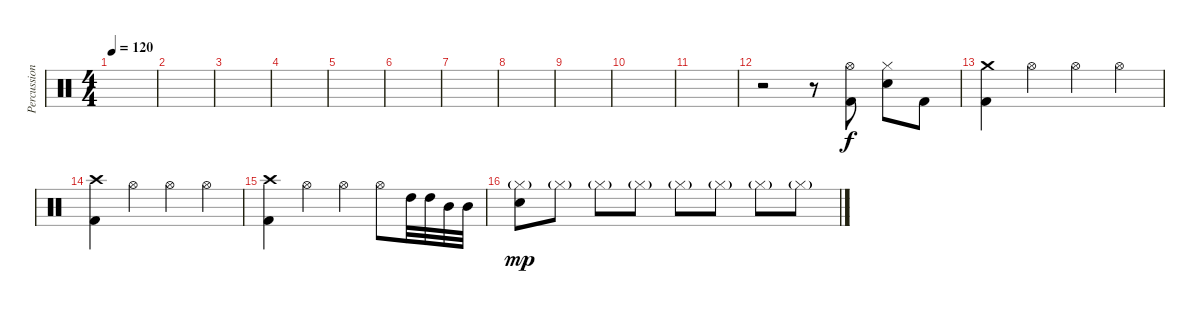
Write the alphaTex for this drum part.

\track ("Percussion" "Percussion") {instrument percussion}
\staff {score}
\articulation defaults
\ts (4 4)
\tempo 120
\clef neutral
\ks c
|
|
|
|
|
|
|
|
|
|
|
r.2 r.8 ("Hi-Hat (open)" "Kick (hit) 2").8 ("Hi-Hat (closed)" "Electric Snare (hit)").8 "Kick (hit) 2".8 |
("Crash medium (hit)" "Kick (hit) 2").4 "Hi-Hat (open)".4 "Hi-Hat (open)".4 "Hi-Hat (open)".4 |
("Crash high (hit)" "Kick (hit) 2").4 "Hi-Hat (open)".4 "Hi-Hat (open)".4 "Hi-Hat (open)".4 |
("Crash high (hit)" "Kick (hit) 2").4 "Hi-Hat (open)".4 "Hi-Hat (open)".4 "Hi-Hat (open)".8 "High Tom (hit)".32 "High Tom (hit)".32 "Mid Tom (hit)".32 "Mid Tom (hit)".32 |
("Hi-Hat (closed)"{g} "Electric Snare (hit)").8{dy mp} "Hi-Hat (closed)"{g}.8 "Hi-Hat (closed)"{g}.8 "Hi-Hat (closed)"{g}.8 "Hi-Hat (closed)"{g}.8 "Hi-Hat (closed)"{g}.8 "Hi-Hat (closed)"{g}.8 "Hi-Hat (closed)"{g}.8
